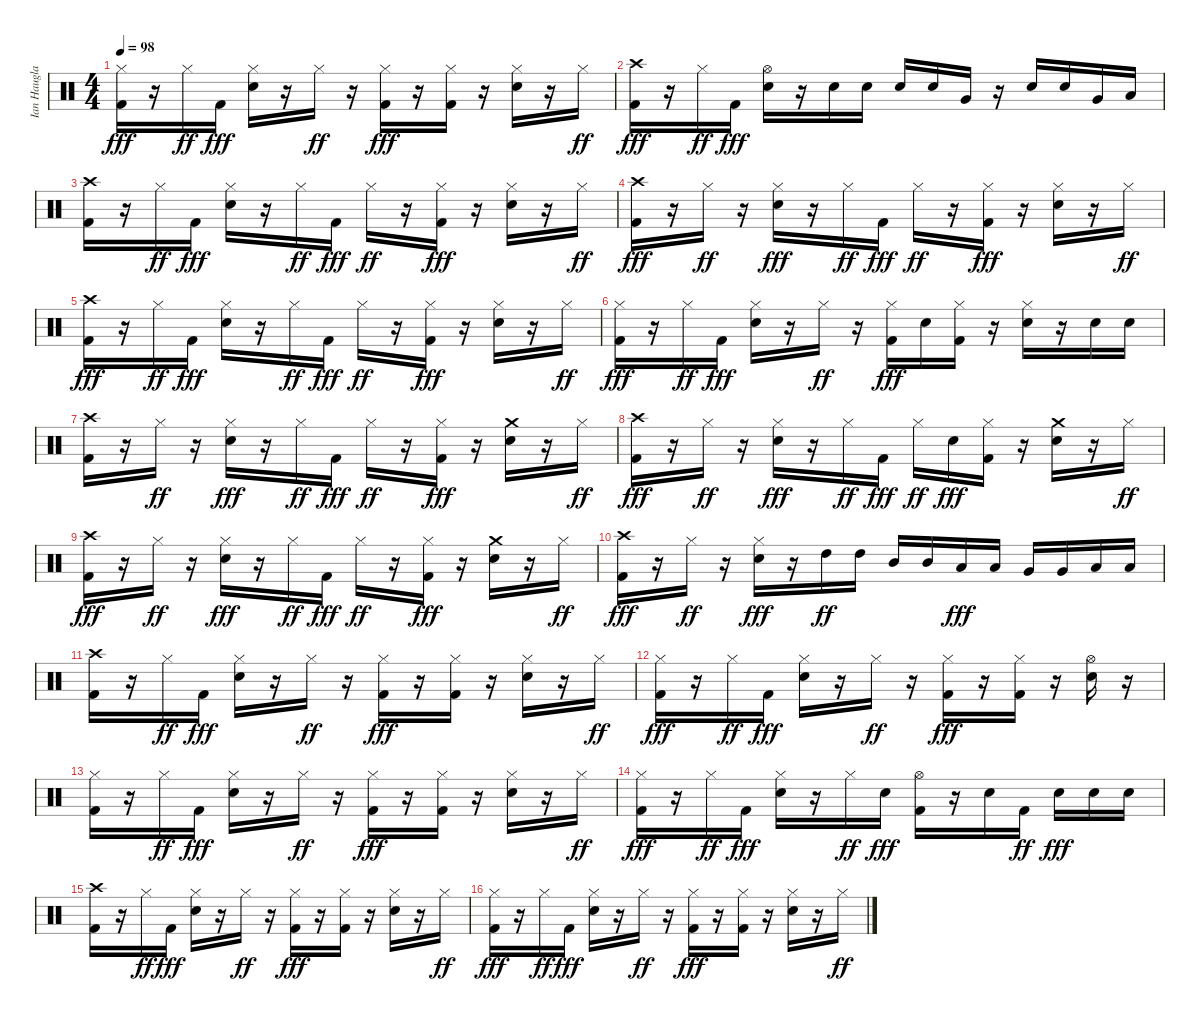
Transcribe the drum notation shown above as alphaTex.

\track ("Ian Haugland" "Ian Haugla") {instrument percussion}
\staff {score}
\articulation defaults
\ts (4 4)
\tempo 98
\clef neutral
\ks c
("Hi-Hat (closed)" "Kick (hit) 2").16{dy fff} r.16 "Hi-Hat (closed)".16{dy ff} "Kick (hit) 2".16{dy fff} ("Hi-Hat (closed)" "Electric Snare (hit)").16 r.16 "Hi-Hat (closed)".16{dy ff} r.16 ("Hi-Hat (closed)" "Kick (hit) 2").16{dy fff} r.16 ("Hi-Hat (closed)" "Kick (hit) 2").16 r.16 ("Hi-Hat (closed)" "Electric Snare (hit)").16 r.16 "Hi-Hat (closed)".16{dy ff} |
("Crash high (hit)" "Kick (hit) 2").16{dy fff} r.16 "Hi-Hat (closed)".16{dy ff} "Kick (hit) 2".16{dy fff} ("Hi-Hat (open)" "Electric Snare (hit)").16 r.16 "Electric Snare (hit)".16 "Electric Snare (hit)".16 "Electric Snare (hit)".16 "Electric Snare (hit)".16 "Very Low Tom (hit)".16 r.16 "Electric Snare (hit)".16 "Electric Snare (hit)".16 "Very Low Tom (hit)".16 "Low Floor Tom (hit)".16 |
("Crash high (hit)" "Kick (hit) 2").16 r.16 "Hi-Hat (closed)".16{dy ff} "Kick (hit) 2".16{dy fff} ("Hi-Hat (closed)" "Electric Snare (hit)").16 r.16 "Hi-Hat (closed)".16{dy ff} "Kick (hit) 2".16{dy fff} "Hi-Hat (closed)".16{dy ff} r.16 ("Hi-Hat (closed)" "Kick (hit) 2").16{dy fff} r.16 ("Hi-Hat (closed)" "Electric Snare (hit)").16 r.16 "Hi-Hat (closed)".16{dy ff} |
("Crash high (hit)" "Kick (hit) 2").16{dy fff} r.16 "Hi-Hat (closed)".16{dy ff} r.16 ("Hi-Hat (closed)" "Electric Snare (hit)").16{dy fff} r.16 "Hi-Hat (closed)".16{dy ff} "Kick (hit) 2".16{dy fff} "Hi-Hat (closed)".16{dy ff} r.16 ("Hi-Hat (closed)" "Kick (hit) 2").16{dy fff} r.16 ("Hi-Hat (closed)" "Electric Snare (hit)").16 r.16 "Hi-Hat (closed)".16{dy ff} |
("Crash high (hit)" "Kick (hit) 2").16{dy fff} r.16 "Hi-Hat (closed)".16{dy ff} "Kick (hit) 2".16{dy fff} ("Hi-Hat (closed)" "Electric Snare (hit)").16 r.16 "Hi-Hat (closed)".16{dy ff} "Kick (hit) 2".16{dy fff} "Hi-Hat (closed)".16{dy ff} r.16 ("Hi-Hat (closed)" "Kick (hit) 2").16{dy fff} r.16 ("Hi-Hat (closed)" "Electric Snare (hit)").16 r.16 "Hi-Hat (closed)".16{dy ff} |
("Hi-Hat (closed)" "Kick (hit) 2").16{dy fff} r.16 "Hi-Hat (closed)".16{dy ff} "Kick (hit) 2".16{dy fff} ("Hi-Hat (closed)" "Electric Snare (hit)").16 r.16 "Hi-Hat (closed)".16{dy ff} r.16 ("Hi-Hat (closed)" "Kick (hit) 2").16{dy fff} "Electric Snare (hit)".16 ("Hi-Hat (closed)" "Kick (hit) 2").16 r.16 ("Hi-Hat (closed)" "Electric Snare (hit)").16 r.16 "Electric Snare (hit)".16 "Electric Snare (hit)".16 |
("Crash high (hit)" "Kick (hit) 2").16 r.16 "Hi-Hat (closed)".16{dy ff} r.16 ("Hi-Hat (closed)" "Electric Snare (hit)").16{dy fff} r.16 "Hi-Hat (closed)".16{dy ff} "Kick (hit) 2".16{dy fff} "Hi-Hat (closed)".16{dy ff} r.16 ("Hi-Hat (closed)" "Kick (hit) 2").16{dy fff} r.16 ("Crash medium (hit)" "Electric Snare (hit)").16 r.16 "Hi-Hat (closed)".16{dy ff} |
("Crash high (hit)" "Kick (hit) 2").16{dy fff} r.16 "Hi-Hat (closed)".16{dy ff} r.16 ("Hi-Hat (closed)" "Electric Snare (hit)").16{dy fff} r.16 "Hi-Hat (closed)".16{dy ff} "Kick (hit) 2".16{dy fff} "Hi-Hat (closed)".16{dy ff} "Electric Snare (hit)".16{dy fff} ("Hi-Hat (closed)" "Kick (hit) 2").16 r.16 ("Crash medium (hit)" "Electric Snare (hit)").16 r.16 "Hi-Hat (closed)".16{dy ff} |
("Crash high (hit)" "Kick (hit) 2").16{dy fff} r.16 "Hi-Hat (closed)".16{dy ff} r.16 ("Hi-Hat (closed)" "Electric Snare (hit)").16{dy fff} r.16 "Hi-Hat (closed)".16{dy ff} "Kick (hit) 2".16{dy fff} "Hi-Hat (closed)".16{dy ff} r.16 ("Hi-Hat (closed)" "Kick (hit) 2").16{dy fff} r.16 ("Crash medium (hit)" "Electric Snare (hit)").16 r.16 "Hi-Hat (closed)".16{dy ff} |
("Crash high (hit)" "Kick (hit) 2").16{dy fff} r.16 "Hi-Hat (closed)".16{dy ff} r.16 ("Hi-Hat (closed)" "Electric Snare (hit)").16{dy fff} r.16 "High Tom (hit)".16{dy ff} "High Tom (hit)".16 "Mid Tom (hit)".16 "Mid Tom (hit)".16 "Low Tom (hit)".16{dy fff} "Low Tom (hit)".16 "Very Low Tom (hit)".16 "Very Low Tom (hit)".16 "Low Floor Tom (hit)".16 "Low Floor Tom (hit)".16 |
("Crash high (hit)" "Kick (hit) 2").16 r.16 "Hi-Hat (closed)".16{dy ff} "Kick (hit) 2".16{dy fff} ("Hi-Hat (closed)" "Electric Snare (hit)").16 r.16 "Hi-Hat (closed)".16{dy ff} r.16 ("Hi-Hat (closed)" "Kick (hit) 2").16{dy fff} r.16 ("Hi-Hat (closed)" "Kick (hit) 2").16 r.16 ("Hi-Hat (closed)" "Electric Snare (hit)").16 r.16 "Hi-Hat (closed)".16{dy ff} |
("Hi-Hat (closed)" "Kick (hit) 2").16{dy fff} r.16 "Hi-Hat (closed)".16{dy ff} "Kick (hit) 2".16{dy fff} ("Hi-Hat (closed)" "Electric Snare (hit)").16 r.16 "Hi-Hat (closed)".16{dy ff} r.16 ("Hi-Hat (closed)" "Kick (hit) 2").16{dy fff} r.16 ("Hi-Hat (closed)" "Kick (hit) 2").16 r.16 ("Hi-Hat (open)" "Electric Snare (hit)").16 r.16 |
("Hi-Hat (closed)" "Kick (hit) 2").16 r.16 "Hi-Hat (closed)".16{dy ff} "Kick (hit) 2".16{dy fff} ("Hi-Hat (closed)" "Electric Snare (hit)").16 r.16 "Hi-Hat (closed)".16{dy ff} r.16 ("Hi-Hat (closed)" "Kick (hit) 2").16{dy fff} r.16 ("Hi-Hat (closed)" "Kick (hit) 2").16 r.16 ("Hi-Hat (closed)" "Electric Snare (hit)").16 r.16 "Hi-Hat (closed)".16{dy ff} |
("Hi-Hat (closed)" "Kick (hit) 2").16{dy fff} r.16 "Hi-Hat (closed)".16{dy ff} "Kick (hit) 2".16{dy fff} ("Hi-Hat (closed)" "Electric Snare (hit)").16 r.16 "Hi-Hat (closed)".16{dy ff} "Electric Snare (hit)".16{dy fff} ("Hi-Hat (open)" "Kick (hit) 2").16 r.16 "Electric Snare (hit)".16 "Kick (hit) 2".16{dy ff} "Electric Snare (hit)".16{dy fff} "Electric Snare (hit)".16 "Electric Snare (hit)".16 |
("Crash high (hit)" "Kick (hit) 2").16 r.16 "Hi-Hat (closed)".16{dy ff} "Kick (hit) 2".16{dy fff} ("Hi-Hat (closed)" "Electric Snare (hit)").16 r.16 "Hi-Hat (closed)".16{dy ff} r.16 ("Hi-Hat (closed)" "Kick (hit) 2").16{dy fff} r.16 ("Hi-Hat (closed)" "Kick (hit) 2").16 r.16 ("Hi-Hat (closed)" "Electric Snare (hit)").16 r.16 "Hi-Hat (closed)".16{dy ff} |
("Hi-Hat (closed)" "Kick (hit) 2").16{dy fff} r.16 "Hi-Hat (closed)".16{dy ff} "Kick (hit) 2".16{dy fff} ("Hi-Hat (closed)" "Electric Snare (hit)").16 r.16 "Hi-Hat (closed)".16{dy ff} r.16 ("Hi-Hat (closed)" "Kick (hit) 2").16{dy fff} r.16 ("Hi-Hat (closed)" "Kick (hit) 2").16 r.16 ("Hi-Hat (closed)" "Electric Snare (hit)").16 r.16 "Hi-Hat (closed)".16{dy ff}
